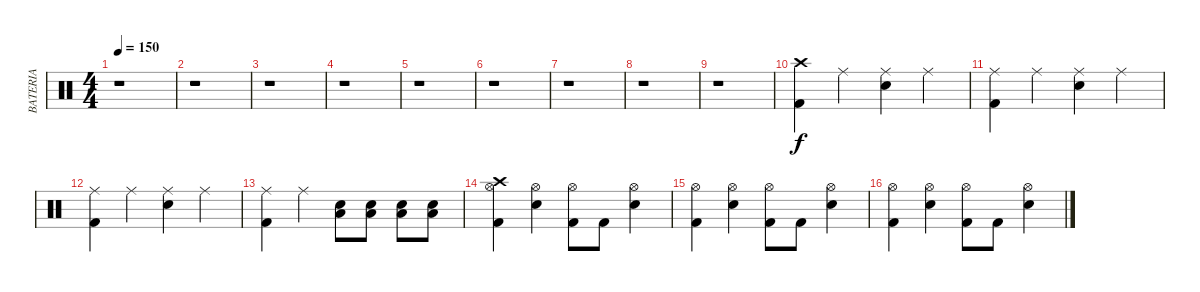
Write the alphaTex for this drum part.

\track ("BATERIA" "BATERIA") {instrument percussion}
\staff {score}
\articulation defaults
\ts (4 4)
\tempo 150
\clef neutral
\ks c
r.1{dy f} |
r.1 |
r.1 |
r.1 |
r.1 |
r.1 |
r.1 |
r.1 |
r.1 |
("Crash high (hit)" "Kick (hit) 2").4 "Ride (middle)".4 ("Ride (middle)" "Snare (hit) 2").4 "Ride (middle)".4 |
("Ride (middle)" "Kick (hit) 2").4 "Ride (middle)".4 ("Ride (middle)" "Snare (hit) 2").4 "Ride (middle)".4 |
("Ride (middle)" "Kick (hit) 2").4 "Ride (middle)".4 ("Ride (middle)" "Snare (hit) 2").4 "Ride (middle)".4 |
("Ride (middle)" "Kick (hit) 2").4 "Ride (middle)".4 ("Snare (hit) 2" "Low Floor Tom (hit)").8 ("Snare (hit) 2" "Low Floor Tom (hit)").8 ("Snare (hit) 2" "Low Floor Tom (hit)").8 ("Snare (hit) 2" "Low Floor Tom (hit)").8 |
("Crash high (hit)" "Hi-Hat (open)" "Kick (hit) 2").4 ("Hi-Hat (open)" "Snare (hit) 2").4 ("Hi-Hat (open)" "Kick (hit) 2").8 "Kick (hit) 2".8 ("Hi-Hat (open)" "Snare (hit) 2").4 |
("Hi-Hat (open)" "Kick (hit) 2").4 ("Hi-Hat (open)" "Snare (hit) 2").4 ("Hi-Hat (open)" "Kick (hit) 2").8 "Kick (hit) 2".8 ("Hi-Hat (open)" "Snare (hit) 2").4 |
("Hi-Hat (open)" "Kick (hit) 2").4 ("Hi-Hat (open)" "Snare (hit) 2").4 ("Hi-Hat (open)" "Kick (hit) 2").8 "Kick (hit) 2".8 ("Hi-Hat (open)" "Snare (hit) 2").4
